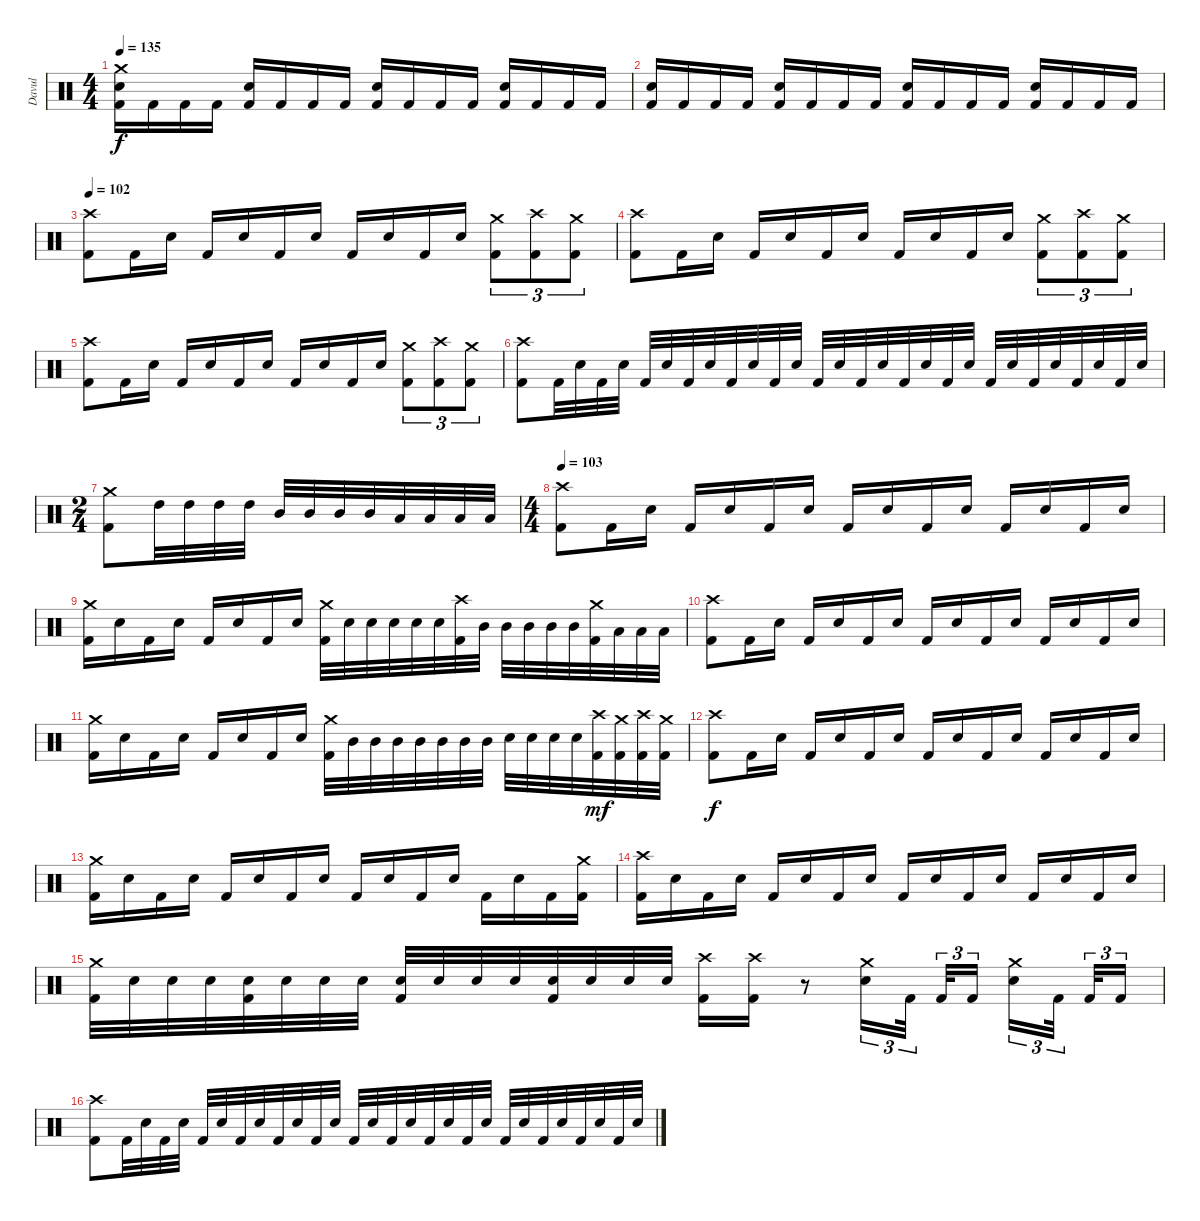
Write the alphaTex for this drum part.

\track ("Davul" "Davul") {instrument percussion}
\staff {score}
\articulation defaults
\ts (4 4)
\tempo 135
\clef neutral
\ks c
("Crash medium (hit)" "Electric Snare (hit)" "Kick (hit) 2").16{dy f} "Kick (hit) 2".16 "Kick (hit) 2".16 "Kick (hit) 2".16 ("Electric Snare (hit)" "Kick (hit) 2").16 "Kick (hit) 2".16 "Kick (hit) 2".16 "Kick (hit) 2".16 ("Electric Snare (hit)" "Kick (hit) 2").16 "Kick (hit) 2".16 "Kick (hit) 2".16 "Kick (hit) 2".16 ("Electric Snare (hit)" "Kick (hit) 2").16 "Kick (hit) 2".16 "Kick (hit) 2".16 "Kick (hit) 2".16 |
("Electric Snare (hit)" "Kick (hit) 2").16 "Kick (hit) 2".16 "Kick (hit) 2".16 "Kick (hit) 2".16 ("Electric Snare (hit)" "Kick (hit) 2").16 "Kick (hit) 2".16 "Kick (hit) 2".16 "Kick (hit) 2".16 ("Electric Snare (hit)" "Kick (hit) 2").16 "Kick (hit) 2".16 "Kick (hit) 2".16 "Kick (hit) 2".16 ("Electric Snare (hit)" "Kick (hit) 2").16 "Kick (hit) 2".16 "Kick (hit) 2".16 "Kick (hit) 2".16 |
\section ("" "")
\tempo 102
("Crash high (hit)" "Kick (hit) 2").8 "Kick (hit) 2".16 "Electric Snare (hit)".16 "Kick (hit) 2".16 "Electric Snare (hit)".16 "Kick (hit) 2".16 "Electric Snare (hit)".16 "Kick (hit) 2".16 "Electric Snare (hit)".16 "Kick (hit) 2".16 "Electric Snare (hit)".16 ("Crash medium (hit)" "Kick (hit) 2").8{tu (3 2)} ("Crash high (hit)" "Kick (hit) 2").8{tu (3 2)} ("Crash medium (hit)" "Kick (hit) 2").8{tu (3 2)} |
("Crash high (hit)" "Kick (hit) 2").8 "Kick (hit) 2".16 "Electric Snare (hit)".16 "Kick (hit) 2".16 "Electric Snare (hit)".16 "Kick (hit) 2".16 "Electric Snare (hit)".16 "Kick (hit) 2".16 "Electric Snare (hit)".16 "Kick (hit) 2".16 "Electric Snare (hit)".16 ("Crash medium (hit)" "Kick (hit) 2").8{tu (3 2)} ("Crash high (hit)" "Kick (hit) 2").8{tu (3 2)} ("Crash medium (hit)" "Kick (hit) 2").8{tu (3 2)} |
("Crash high (hit)" "Kick (hit) 2").8 "Kick (hit) 2".16 "Electric Snare (hit)".16 "Kick (hit) 2".16 "Electric Snare (hit)".16 "Kick (hit) 2".16 "Electric Snare (hit)".16 "Kick (hit) 2".16 "Electric Snare (hit)".16 "Kick (hit) 2".16 "Electric Snare (hit)".16 ("Crash medium (hit)" "Kick (hit) 2").8{tu (3 2)} ("Crash high (hit)" "Kick (hit) 2").8{tu (3 2)} ("Crash medium (hit)" "Kick (hit) 2").8{tu (3 2)} |
("Crash high (hit)" "Kick (hit) 2").8 "Kick (hit) 2".32 "Electric Snare (hit)".32 "Kick (hit) 2".32 "Electric Snare (hit)".32 "Kick (hit) 2".32 "Electric Snare (hit)".32 "Kick (hit) 2".32 "Electric Snare (hit)".32 "Kick (hit) 2".32 "Electric Snare (hit)".32 "Kick (hit) 2".32 "Electric Snare (hit)".32 "Kick (hit) 2".32 "Electric Snare (hit)".32 "Kick (hit) 2".32 "Electric Snare (hit)".32 "Kick (hit) 2".32 "Electric Snare (hit)".32 "Kick (hit) 2".32 "Electric Snare (hit)".32 "Kick (hit) 2".32 "Electric Snare (hit)".32 "Kick (hit) 2".32 "Electric Snare (hit)".32 "Kick (hit) 2".32 "Electric Snare (hit)".32 "Kick (hit) 2".32 "Electric Snare (hit)".32 |
\ts (2 4)
("Crash medium (hit)" "Kick (hit) 2").8 "High Tom (hit)".32 "High Tom (hit)".32 "High Tom (hit)".32 "High Tom (hit)".32 "Mid Tom (hit)".32 "Mid Tom (hit)".32 "Mid Tom (hit)".32 "Mid Tom (hit)".32 "Low Tom (hit)".32 "Low Tom (hit)".32 "Low Tom (hit)".32 "Low Tom (hit)".32 |
\ts (4 4)
\section ("" "")
\tempo 103
("Crash high (hit)" "Kick (hit) 2").8 "Kick (hit) 2".16 "Electric Snare (hit)".16 "Kick (hit) 2".16 "Electric Snare (hit)".16 "Kick (hit) 2".16 "Electric Snare (hit)".16 "Kick (hit) 2".16 "Electric Snare (hit)".16 "Kick (hit) 2".16 "Electric Snare (hit)".16 "Kick (hit) 2".16 "Electric Snare (hit)".16 "Kick (hit) 2".16 "Electric Snare (hit)".16 |
("Crash medium (hit)" "Kick (hit) 2").16 "Electric Snare (hit)".16 "Kick (hit) 2".16 "Electric Snare (hit)".16 "Kick (hit) 2".16 "Electric Snare (hit)".16 "Kick (hit) 2".16 "Electric Snare (hit)".16 ("Crash medium (hit)" "Kick (hit) 2").32 "Electric Snare (hit)".32 "Electric Snare (hit)".32 "Electric Snare (hit)".32 "Electric Snare (hit)".32 "Electric Snare (hit)".32 ("Crash high (hit)" "Kick (hit) 2").32 "Mid Tom (hit)".32 "Mid Tom (hit)".32 "Mid Tom (hit)".32 "Mid Tom (hit)".32 "Mid Tom (hit)".32 ("Crash medium (hit)" "Kick (hit) 2").32 "Low Tom (hit)".32 "Low Tom (hit)".32 "Low Tom (hit)".32 |
("Crash high (hit)" "Kick (hit) 2").8 "Kick (hit) 2".16 "Electric Snare (hit)".16 "Kick (hit) 2".16 "Electric Snare (hit)".16 "Kick (hit) 2".16 "Electric Snare (hit)".16 "Kick (hit) 2".16 "Electric Snare (hit)".16 "Kick (hit) 2".16 "Electric Snare (hit)".16 "Kick (hit) 2".16 "Electric Snare (hit)".16 "Kick (hit) 2".16 "Electric Snare (hit)".16 |
("Crash medium (hit)" "Kick (hit) 2").16 "Electric Snare (hit)".16 "Kick (hit) 2".16 "Electric Snare (hit)".16 "Kick (hit) 2".16 "Electric Snare (hit)".16 "Kick (hit) 2".16 "Electric Snare (hit)".16 ("Crash medium (hit)" "Kick (hit) 2").32 "Mid Tom (hit)".32 "Mid Tom (hit)".32 "Mid Tom (hit)".32 "Mid Tom (hit)".32 "Mid Tom (hit)".32 "Mid Tom (hit)".32 "Mid Tom (hit)".32 "Electric Snare (hit)".32 "Electric Snare (hit)".32 "Electric Snare (hit)".32 "Electric Snare (hit)".32 ("Crash high (hit)" "Kick (hit) 2").32{dy mf} ("Crash medium (hit)" "Kick (hit) 2").32 ("Crash high (hit)" "Kick (hit) 2").32 ("Crash medium (hit)" "Kick (hit) 2").32 |
("Crash high (hit)" "Kick (hit) 2").8{dy f} "Kick (hit) 2".16 "Electric Snare (hit)".16 "Kick (hit) 2".16 "Electric Snare (hit)".16 "Kick (hit) 2".16 "Electric Snare (hit)".16 "Kick (hit) 2".16 "Electric Snare (hit)".16 "Kick (hit) 2".16 "Electric Snare (hit)".16 "Kick (hit) 2".16 "Electric Snare (hit)".16 "Kick (hit) 2".16 "Electric Snare (hit)".16 |
("Crash medium (hit)" "Kick (hit) 2").16 "Electric Snare (hit)".16 "Kick (hit) 2".16 "Electric Snare (hit)".16 "Kick (hit) 2".16 "Electric Snare (hit)".16 "Kick (hit) 2".16 "Electric Snare (hit)".16 "Kick (hit) 2".16 "Electric Snare (hit)".16 "Kick (hit) 2".16 "Electric Snare (hit)".16 "Kick (hit) 2".16 "Electric Snare (hit)".16 "Kick (hit) 2".16 ("Crash medium (hit)" "Kick (hit) 2").16 |
("Crash high (hit)" "Kick (hit) 2").16 "Electric Snare (hit)".16 "Kick (hit) 2".16 "Electric Snare (hit)".16 "Kick (hit) 2".16 "Electric Snare (hit)".16 "Kick (hit) 2".16 "Electric Snare (hit)".16 "Kick (hit) 2".16 "Electric Snare (hit)".16 "Kick (hit) 2".16 "Electric Snare (hit)".16 "Kick (hit) 2".16 "Electric Snare (hit)".16 "Kick (hit) 2".16 "Electric Snare (hit)".16 |
("Crash medium (hit)" "Kick (hit) 2").32 "Electric Snare (hit)".32 "Electric Snare (hit)".32 "Electric Snare (hit)".32 ("Electric Snare (hit)" "Kick (hit) 2").32 "Electric Snare (hit)".32 "Electric Snare (hit)".32 "Electric Snare (hit)".32 ("Electric Snare (hit)" "Kick (hit) 2").32 "Electric Snare (hit)".32 "Electric Snare (hit)".32 "Electric Snare (hit)".32 ("Electric Snare (hit)" "Kick (hit) 2").32 "Electric Snare (hit)".32 "Electric Snare (hit)".32 "Electric Snare (hit)".32 ("Crash high (hit)" "Kick (hit) 2").16 ("Crash high (hit)" "Kick (hit) 2").16 r.8 ("Crash medium (hit)" "Electric Snare (hit)").16{tu (3 2)} "Kick (hit) 2".32{tu (3 2)} "Kick (hit) 2".32{tu (3 2)} "Kick (hit) 2".16{tu (3 2)} ("Crash medium (hit)" "Electric Snare (hit)").16{tu (3 2)} "Kick (hit) 2".32{tu (3 2)} "Kick (hit) 2".32{tu (3 2)} "Kick (hit) 2".16{tu (3 2)} |
\section ("" "")
("Crash high (hit)" "Kick (hit) 2").8 "Kick (hit) 2".32 "Electric Snare (hit)".32 "Kick (hit) 2".32 "Electric Snare (hit)".32 "Kick (hit) 2".32 "Electric Snare (hit)".32 "Kick (hit) 2".32 "Electric Snare (hit)".32 "Kick (hit) 2".32 "Electric Snare (hit)".32 "Kick (hit) 2".32 "Electric Snare (hit)".32 "Kick (hit) 2".32 "Electric Snare (hit)".32 "Kick (hit) 2".32 "Electric Snare (hit)".32 "Kick (hit) 2".32 "Electric Snare (hit)".32 "Kick (hit) 2".32 "Electric Snare (hit)".32 "Kick (hit) 2".32 "Electric Snare (hit)".32 "Kick (hit) 2".32 "Electric Snare (hit)".32 "Kick (hit) 2".32 "Electric Snare (hit)".32 "Kick (hit) 2".32 "Electric Snare (hit)".32
